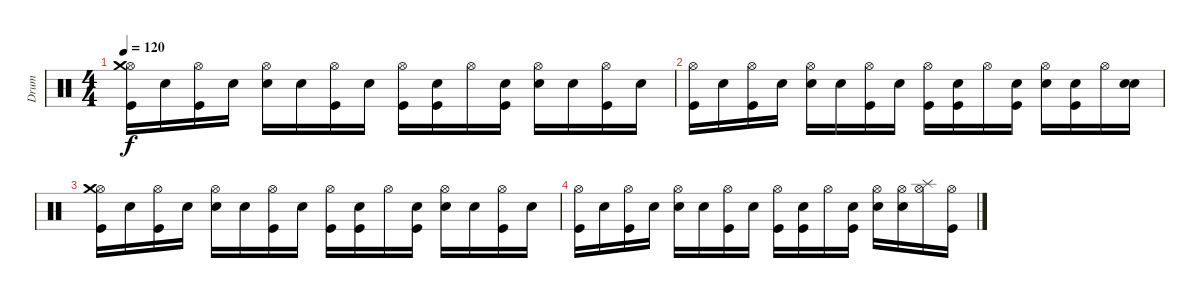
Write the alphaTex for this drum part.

\track ("Drum" "Drum") {instrument percussion}
\staff {score}
\articulation defaults
\ts (4 4)
\tempo 120
\clef neutral
\ks c
("Hi-Hat (open)" "Crash medium (hit)" "Kick (hit)").16{dy f} "Snare (hit)".16 ("Hi-Hat (open)" "Kick (hit)").16 "Snare (hit)".16 ("Hi-Hat (open)" "Electric Snare (hit)").16 "Snare (hit)".16 ("Hi-Hat (open)" "Kick (hit)").16 "Snare (hit)".16 ("Hi-Hat (open)" "Kick (hit)").16 ("Snare (hit)" "Kick (hit)").16 "Hi-Hat (open)".16 ("Snare (hit)" "Kick (hit)").16 ("Hi-Hat (open)" "Electric Snare (hit)").16 "Snare (hit)".16 ("Hi-Hat (open)" "Kick (hit)").16 "Snare (hit)".16 |
("Hi-Hat (open)" "Kick (hit)").16 "Snare (hit)".16 ("Hi-Hat (open)" "Kick (hit)").16 "Snare (hit)".16 ("Hi-Hat (open)" "Electric Snare (hit)").16 "Snare (hit)".16 ("Hi-Hat (open)" "Kick (hit)").16 "Snare (hit)".16 ("Hi-Hat (open)" "Kick (hit)").16 ("Snare (hit)" "Kick (hit)").16 "Hi-Hat (open)".16 ("Snare (hit)" "Kick (hit)").16 ("Hi-Hat (open)" "Electric Snare (hit)").16 ("Snare (hit)" "Kick (hit)").16 "Hi-Hat (open)".16 ("Snare (hit)" "Electric Snare (hit)").16 |
("Hi-Hat (open)" "Crash medium (hit)" "Kick (hit)").16{volume 0} "Snare (hit)".16 ("Hi-Hat (open)" "Kick (hit)").16 "Snare (hit)".16 ("Hi-Hat (open)" "Electric Snare (hit)").16 "Snare (hit)".16 ("Hi-Hat (open)" "Kick (hit)").16 "Snare (hit)".16 ("Hi-Hat (open)" "Kick (hit)").16 ("Snare (hit)" "Kick (hit)").16 "Hi-Hat (open)".16 ("Snare (hit)" "Kick (hit)").16 ("Hi-Hat (open)" "Electric Snare (hit)").16 "Snare (hit)".16 ("Hi-Hat (open)" "Kick (hit)").16 "Snare (hit)".16 |
("Hi-Hat (open)" "Kick (hit)").16 "Snare (hit)".16 ("Hi-Hat (open)" "Kick (hit)").16 "Snare (hit)".16 ("Hi-Hat (open)" "Electric Snare (hit)").16 "Snare (hit)".16 ("Hi-Hat (open)" "Kick (hit)").16 "Snare (hit)".16 ("Hi-Hat (open)" "Kick (hit)").16 ("Snare (hit)" "Kick (hit)").16 "Hi-Hat (open)".16 ("Snare (hit)" "Kick (hit)").16 ("Hi-Hat (open)" "Electric Snare (hit)").16 ("Hi-Hat (open)" "Electric Snare (hit)").16 ("Hi-Hat (open)" "Splash (hit)").16 ("Hi-Hat (open)" "Kick (hit)").16
